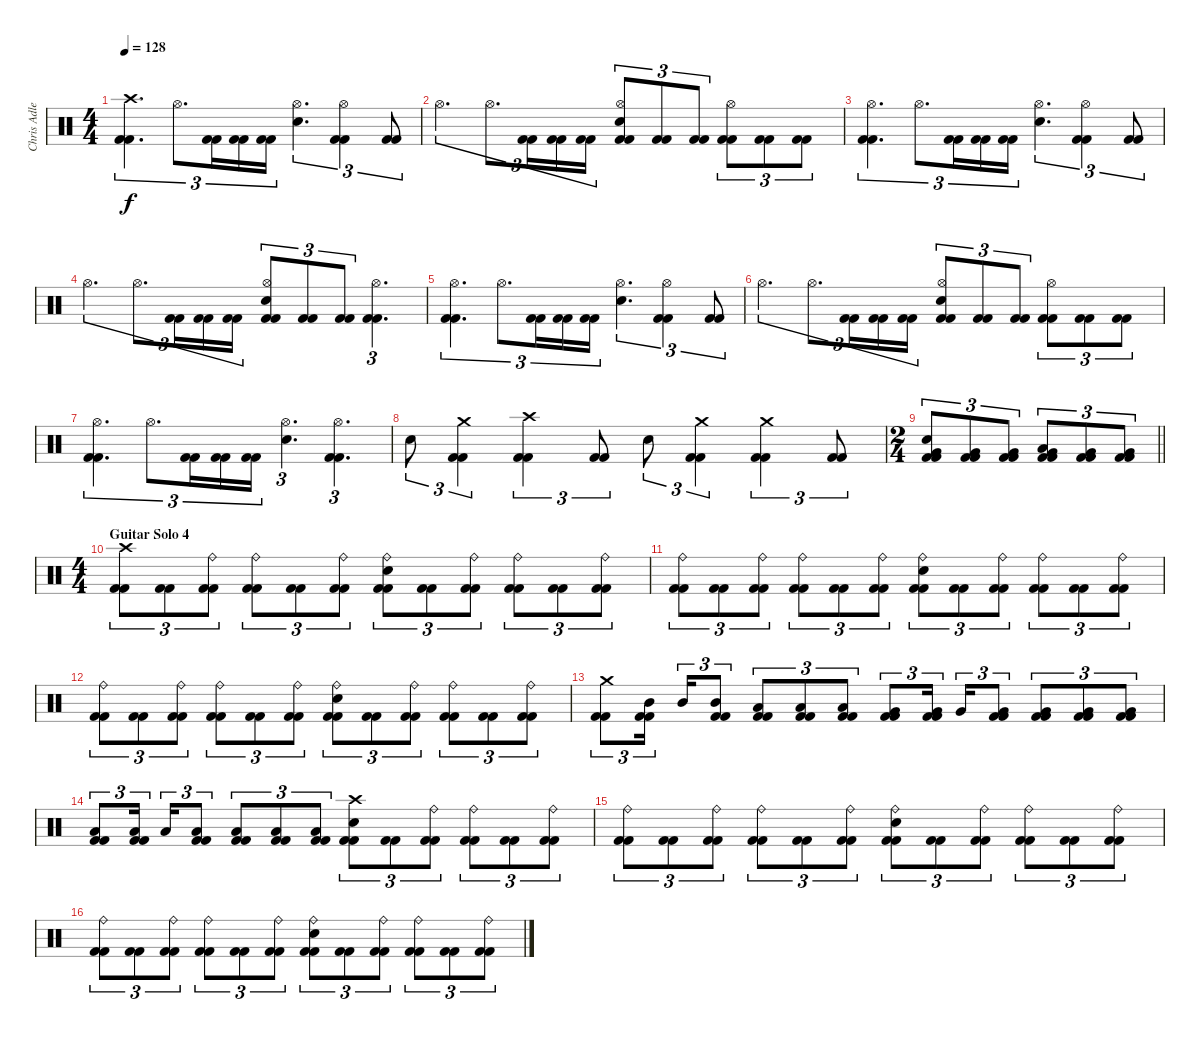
\track ("Chris Adler" "Chris Adle") {instrument percussion}
\staff {score}
\articulation defaults
\ts (4 4)
\tempo 128
\clef neutral
\ks c
("Crash high (hit)" "Kick (hit) 2" "Kick (hit) 2").4{d tu (3 2) dy f} "Hi-Hat (open)".8{d tu (3 2)} ("Kick (hit) 2" "Kick (hit) 2").16{tu (3 2)} ("Kick (hit) 2" "Kick (hit) 2").16{tu (3 2)} ("Kick (hit) 2" "Kick (hit) 2").16{tu (3 2)} ("Hi-Hat (open)" "Electric Snare (hit)").4{d tu (3 2)} ("Hi-Hat (open)" "Kick (hit) 2" "Kick (hit) 2").4{tu (3 2)} ("Kick (hit) 2" "Kick (hit) 2").8{tu (3 2)} |
"Hi-Hat (open)".4{d tu (3 2)} "Hi-Hat (open)".8{d tu (3 2)} ("Kick (hit) 2" "Kick (hit) 2").16{tu (3 2)} ("Kick (hit) 2" "Kick (hit) 2").16{tu (3 2)} ("Kick (hit) 2" "Kick (hit) 2").16{tu (3 2)} ("Hi-Hat (open)" "Electric Snare (hit)" "Kick (hit) 2" "Kick (hit) 2").8{tu (3 2)} ("Kick (hit) 2" "Kick (hit) 2").8{tu (3 2)} ("Kick (hit) 2" "Kick (hit) 2").8{tu (3 2)} ("Hi-Hat (open)" "Kick (hit) 2" "Kick (hit) 2").8{tu (3 2)} ("Kick (hit) 2" "Kick (hit) 2").8{tu (3 2)} ("Kick (hit) 2" "Kick (hit) 2").8{tu (3 2)} |
("Hi-Hat (open)" "Kick (hit) 2" "Kick (hit) 2").4{d tu (3 2)} "Hi-Hat (open)".8{d tu (3 2)} ("Kick (hit) 2" "Kick (hit) 2").16{tu (3 2)} ("Kick (hit) 2" "Kick (hit) 2").16{tu (3 2)} ("Kick (hit) 2" "Kick (hit) 2").16{tu (3 2)} ("Hi-Hat (open)" "Electric Snare (hit)").4{d tu (3 2)} ("Hi-Hat (open)" "Kick (hit) 2" "Kick (hit) 2").4{tu (3 2)} ("Kick (hit) 2" "Kick (hit) 2").8{tu (3 2)} |
"Hi-Hat (open)".4{d tu (3 2)} "Hi-Hat (open)".8{d tu (3 2)} ("Kick (hit) 2" "Kick (hit) 2").16{tu (3 2)} ("Kick (hit) 2" "Kick (hit) 2").16{tu (3 2)} ("Kick (hit) 2" "Kick (hit) 2").16{tu (3 2)} ("Hi-Hat (open)" "Electric Snare (hit)" "Kick (hit) 2" "Kick (hit) 2").8{tu (3 2)} ("Kick (hit) 2" "Kick (hit) 2").8{tu (3 2)} ("Kick (hit) 2" "Kick (hit) 2").8{tu (3 2)} ("Hi-Hat (open)" "Kick (hit) 2" "Kick (hit) 2").4{d tu (3 2)} |
("Hi-Hat (open)" "Kick (hit) 2" "Kick (hit) 2").4{d tu (3 2)} "Hi-Hat (open)".8{d tu (3 2)} ("Kick (hit) 2" "Kick (hit) 2").16{tu (3 2)} ("Kick (hit) 2" "Kick (hit) 2").16{tu (3 2)} ("Kick (hit) 2" "Kick (hit) 2").16{tu (3 2)} ("Hi-Hat (open)" "Electric Snare (hit)").4{d tu (3 2)} ("Hi-Hat (open)" "Kick (hit) 2" "Kick (hit) 2").4{tu (3 2)} ("Kick (hit) 2" "Kick (hit) 2").8{tu (3 2)} |
"Hi-Hat (open)".4{d tu (3 2)} "Hi-Hat (open)".8{d tu (3 2)} ("Kick (hit) 2" "Kick (hit) 2").16{tu (3 2)} ("Kick (hit) 2" "Kick (hit) 2").16{tu (3 2)} ("Kick (hit) 2" "Kick (hit) 2").16{tu (3 2)} ("Hi-Hat (open)" "Electric Snare (hit)" "Kick (hit) 2" "Kick (hit) 2").8{tu (3 2)} ("Kick (hit) 2" "Kick (hit) 2").8{tu (3 2)} ("Kick (hit) 2" "Kick (hit) 2").8{tu (3 2)} ("Hi-Hat (open)" "Kick (hit) 2" "Kick (hit) 2").8{tu (3 2)} ("Kick (hit) 2" "Kick (hit) 2").8{tu (3 2)} ("Kick (hit) 2" "Kick (hit) 2").8{tu (3 2)} |
("Hi-Hat (open)" "Kick (hit) 2" "Kick (hit) 2").4{d tu (3 2)} "Hi-Hat (open)".8{d tu (3 2)} ("Kick (hit) 2" "Kick (hit) 2").16{tu (3 2)} ("Kick (hit) 2" "Kick (hit) 2").16{tu (3 2)} ("Kick (hit) 2" "Kick (hit) 2").16{tu (3 2)} ("Hi-Hat (open)" "Electric Snare (hit)").4{d tu (3 2)} ("Hi-Hat (open)" "Kick (hit) 2" "Kick (hit) 2").4{d tu (3 2)} |
"Electric Snare (hit)".8{tu (3 2)} ("Crash medium (hit)" "Kick (hit) 2" "Kick (hit) 2").4{tu (3 2)} ("Crash high (hit)" "Kick (hit) 2" "Kick (hit) 2").4{tu (3 2)} ("Kick (hit) 2" "Kick (hit) 2").8{tu (3 2)} "Electric Snare (hit)".8{tu (3 2)} ("Crash medium (hit)" "Kick (hit) 2" "Kick (hit) 2").4{tu (3 2)} ("Crash medium (hit)" "Kick (hit) 2" "Kick (hit) 2").4{tu (3 2)} ("Kick (hit) 2" "Kick (hit) 2").8{tu (3 2)} |
\ts (2 4)
\barLineRight lightlight
("Very Low Tom (hit)" "Electric Snare (hit)" "Kick (hit) 2" "Kick (hit) 2").8{tu (3 2)} ("Very Low Tom (hit)" "Kick (hit) 2" "Kick (hit) 2").8{tu (3 2)} ("Very Low Tom (hit)" "Kick (hit) 2" "Kick (hit) 2").8{tu (3 2)} ("Low Tom (hit)" "Very Low Tom (hit)" "Kick (hit) 2" "Kick (hit) 2").8{tu (3 2)} ("Very Low Tom (hit)" "Kick (hit) 2" "Kick (hit) 2").8{tu (3 2)} ("Very Low Tom (hit)" "Kick (hit) 2" "Kick (hit) 2").8{tu (3 2)} |
\ts (4 4)
\section ("" "Guitar Solo 4")
("Crash high (hit)" "Kick (hit) 2" "Kick (hit) 2").8{tu (3 2)} ("Kick (hit) 2" "Kick (hit) 2").8{tu (3 2)} ("Ride (bell)" "Kick (hit) 2" "Kick (hit) 2").8{tu (3 2)} ("Ride (bell)" "Kick (hit) 2" "Kick (hit) 2").8{tu (3 2)} ("Kick (hit) 2" "Kick (hit) 2").8{tu (3 2)} ("Ride (bell)" "Kick (hit) 2" "Kick (hit) 2").8{tu (3 2)} ("Ride (bell)" "Electric Snare (hit)" "Kick (hit) 2" "Kick (hit) 2").8{tu (3 2)} ("Kick (hit) 2" "Kick (hit) 2").8{tu (3 2)} ("Ride (bell)" "Kick (hit) 2" "Kick (hit) 2").8{tu (3 2)} ("Ride (bell)" "Kick (hit) 2" "Kick (hit) 2").8{tu (3 2)} ("Kick (hit) 2" "Kick (hit) 2").8{tu (3 2)} ("Ride (bell)" "Kick (hit) 2" "Kick (hit) 2").8{tu (3 2)} |
("Ride (bell)" "Kick (hit) 2" "Kick (hit) 2").8{tu (3 2)} ("Kick (hit) 2" "Kick (hit) 2").8{tu (3 2)} ("Ride (bell)" "Kick (hit) 2" "Kick (hit) 2").8{tu (3 2)} ("Ride (bell)" "Kick (hit) 2" "Kick (hit) 2").8{tu (3 2)} ("Kick (hit) 2" "Kick (hit) 2").8{tu (3 2)} ("Ride (bell)" "Kick (hit) 2" "Kick (hit) 2").8{tu (3 2)} ("Ride (bell)" "Electric Snare (hit)" "Kick (hit) 2" "Kick (hit) 2").8{tu (3 2)} ("Kick (hit) 2" "Kick (hit) 2").8{tu (3 2)} ("Ride (bell)" "Kick (hit) 2" "Kick (hit) 2").8{tu (3 2)} ("Ride (bell)" "Kick (hit) 2" "Kick (hit) 2").8{tu (3 2)} ("Kick (hit) 2" "Kick (hit) 2").8{tu (3 2)} ("Ride (bell)" "Kick (hit) 2" "Kick (hit) 2").8{tu (3 2)} |
("Ride (bell)" "Kick (hit) 2" "Kick (hit) 2").8{tu (3 2)} ("Kick (hit) 2" "Kick (hit) 2").8{tu (3 2)} ("Ride (bell)" "Kick (hit) 2" "Kick (hit) 2").8{tu (3 2)} ("Ride (bell)" "Kick (hit) 2" "Kick (hit) 2").8{tu (3 2)} ("Kick (hit) 2" "Kick (hit) 2").8{tu (3 2)} ("Ride (bell)" "Kick (hit) 2" "Kick (hit) 2").8{tu (3 2)} ("Ride (bell)" "Electric Snare (hit)" "Kick (hit) 2" "Kick (hit) 2").8{tu (3 2)} ("Kick (hit) 2" "Kick (hit) 2").8{tu (3 2)} ("Ride (bell)" "Kick (hit) 2" "Kick (hit) 2").8{tu (3 2)} ("Ride (bell)" "Kick (hit) 2" "Kick (hit) 2").8{tu (3 2)} ("Kick (hit) 2" "Kick (hit) 2").8{tu (3 2)} ("Ride (bell)" "Kick (hit) 2" "Kick (hit) 2").8{tu (3 2)} |
("Crash medium (hit)" "Kick (hit) 2" "Kick (hit) 2").8{tu (3 2)} ("Mid Tom (hit)" "Kick (hit) 2" "Kick (hit) 2").16{tu (3 2) beam splitsecondary} "Mid Tom (hit)".16{tu (3 2)} ("Mid Tom (hit)" "Kick (hit) 2" "Kick (hit) 2").8{tu (3 2)} ("Low Tom (hit)" "Kick (hit) 2" "Kick (hit) 2").8{tu (3 2)} ("Low Tom (hit)" "Kick (hit) 2" "Kick (hit) 2").8{tu (3 2)} ("Low Tom (hit)" "Kick (hit) 2" "Kick (hit) 2").8{tu (3 2)} ("Very Low Tom (hit)" "Kick (hit) 2" "Kick (hit) 2").8{tu (3 2)} ("Very Low Tom (hit)" "Kick (hit) 2" "Kick (hit) 2").16{tu (3 2) beam splitsecondary} "Very Low Tom (hit)".16{tu (3 2)} ("Very Low Tom (hit)" "Kick (hit) 2" "Kick (hit) 2").8{tu (3 2)} ("Very Low Tom (hit)" "Kick (hit) 2" "Kick (hit) 2").8{tu (3 2)} ("Very Low Tom (hit)" "Kick (hit) 2" "Kick (hit) 2").8{tu (3 2)} ("Very Low Tom (hit)" "Kick (hit) 2" "Kick (hit) 2").8{tu (3 2)} |
("Low Floor Tom (hit)" "Kick (hit) 2" "Kick (hit) 2").8{tu (3 2)} ("Low Floor Tom (hit)" "Kick (hit) 2" "Kick (hit) 2").16{tu (3 2) beam splitsecondary} "Low Floor Tom (hit)".16{tu (3 2)} ("Low Floor Tom (hit)" "Kick (hit) 2" "Kick (hit) 2").8{tu (3 2)} ("Low Floor Tom (hit)" "Kick (hit) 2" "Kick (hit) 2").8{tu (3 2)} ("Low Floor Tom (hit)" "Kick (hit) 2" "Kick (hit) 2").8{tu (3 2)} ("Low Floor Tom (hit)" "Kick (hit) 2" "Kick (hit) 2").8{tu (3 2)} ("Crash high (hit)" "Electric Snare (hit)" "Kick (hit) 2" "Kick (hit) 2").8{tu (3 2)} ("Kick (hit) 2" "Kick (hit) 2").8{tu (3 2)} ("Ride (bell)" "Kick (hit) 2" "Kick (hit) 2").8{tu (3 2)} ("Ride (bell)" "Kick (hit) 2" "Kick (hit) 2").8{tu (3 2)} ("Kick (hit) 2" "Kick (hit) 2").8{tu (3 2)} ("Ride (bell)" "Kick (hit) 2" "Kick (hit) 2").8{tu (3 2)} |
("Ride (bell)" "Kick (hit) 2" "Kick (hit) 2").8{tu (3 2)} ("Kick (hit) 2" "Kick (hit) 2").8{tu (3 2)} ("Ride (bell)" "Kick (hit) 2" "Kick (hit) 2").8{tu (3 2)} ("Ride (bell)" "Kick (hit) 2" "Kick (hit) 2").8{tu (3 2)} ("Kick (hit) 2" "Kick (hit) 2").8{tu (3 2)} ("Ride (bell)" "Kick (hit) 2" "Kick (hit) 2").8{tu (3 2)} ("Ride (bell)" "Electric Snare (hit)" "Kick (hit) 2" "Kick (hit) 2").8{tu (3 2)} ("Kick (hit) 2" "Kick (hit) 2").8{tu (3 2)} ("Ride (bell)" "Kick (hit) 2" "Kick (hit) 2").8{tu (3 2)} ("Ride (bell)" "Kick (hit) 2" "Kick (hit) 2").8{tu (3 2)} ("Kick (hit) 2" "Kick (hit) 2").8{tu (3 2)} ("Ride (bell)" "Kick (hit) 2" "Kick (hit) 2").8{tu (3 2)} |
("Ride (bell)" "Kick (hit) 2" "Kick (hit) 2").8{tu (3 2)} ("Kick (hit) 2" "Kick (hit) 2").8{tu (3 2)} ("Ride (bell)" "Kick (hit) 2" "Kick (hit) 2").8{tu (3 2)} ("Ride (bell)" "Kick (hit) 2" "Kick (hit) 2").8{tu (3 2)} ("Kick (hit) 2" "Kick (hit) 2").8{tu (3 2)} ("Ride (bell)" "Kick (hit) 2" "Kick (hit) 2").8{tu (3 2)} ("Ride (bell)" "Electric Snare (hit)" "Kick (hit) 2" "Kick (hit) 2").8{tu (3 2)} ("Kick (hit) 2" "Kick (hit) 2").8{tu (3 2)} ("Ride (bell)" "Kick (hit) 2" "Kick (hit) 2").8{tu (3 2)} ("Ride (bell)" "Kick (hit) 2" "Kick (hit) 2").8{tu (3 2)} ("Kick (hit) 2" "Kick (hit) 2").8{tu (3 2)} ("Ride (bell)" "Kick (hit) 2" "Kick (hit) 2").8{tu (3 2)}
